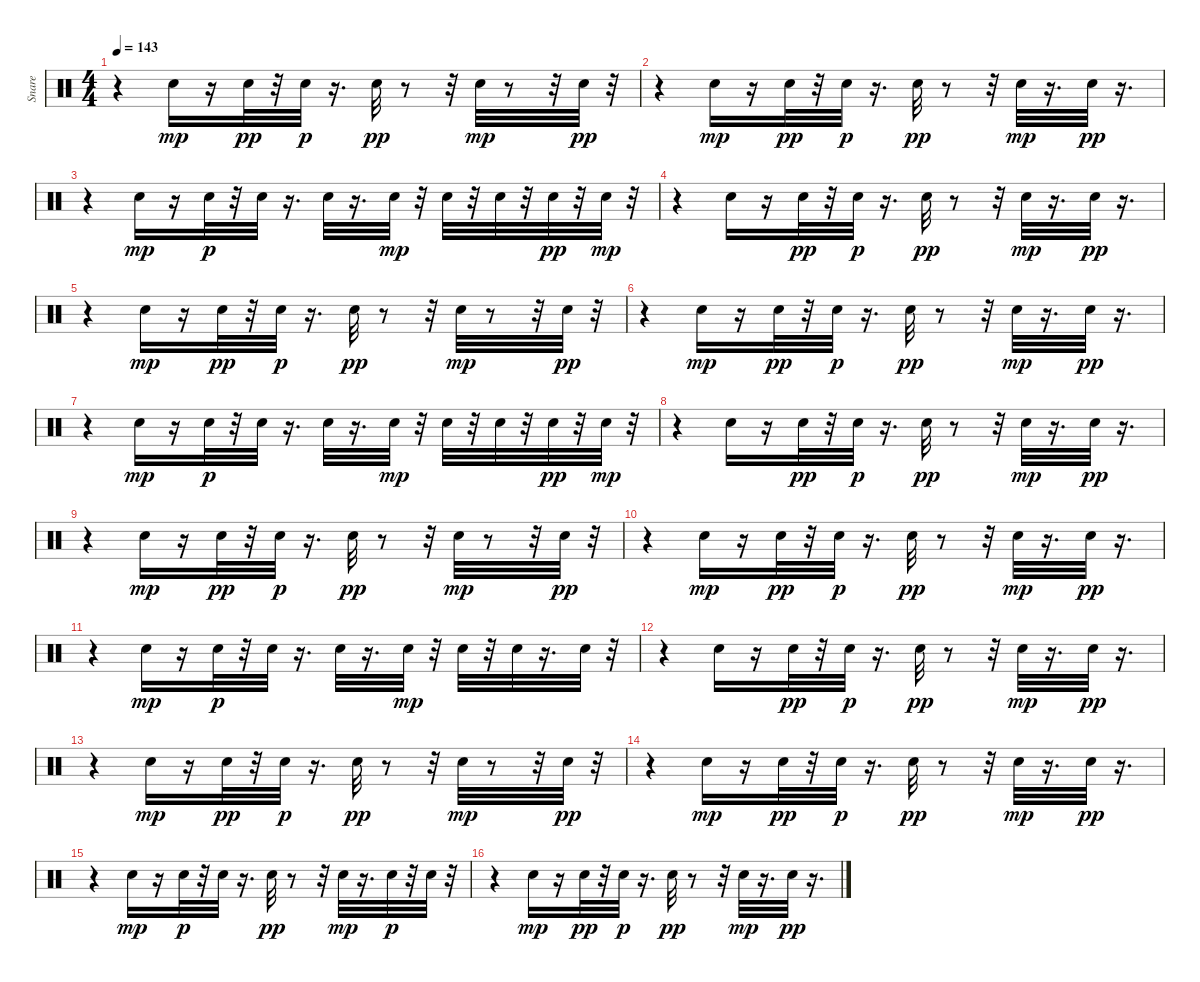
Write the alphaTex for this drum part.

\track ("Snare    " "Snare    ") {instrument percussion}
\staff {score}
\articulation defaults
\ts (4 4)
\tempo 143
\clef neutral
\ks c
r.4{dy pp} "Electric Snare (hit)".16{dy mp} r.16 "Electric Snare (hit)".32{dy pp} r.32 "Snare (hit) 2".32{dy p} r.16{d} "Electric Snare (hit)".32{dy pp} r.8 r.32 "Electric Snare (hit)".32{dy mp} r.8 r.32 "Electric Snare (hit)".32{dy pp} r.32 |
r.4 "Electric Snare (hit)".16{dy mp} r.16 "Electric Snare (hit)".32{dy pp} r.32 "Snare (hit) 2".32{dy p} r.16{d} "Electric Snare (hit)".32{dy pp} r.8 r.32 "Electric Snare (hit)".32{dy mp} r.16{d} "Electric Snare (hit)".32{dy pp} r.16{d} |
r.4 "Electric Snare (hit)".16{dy mp} r.16 "Electric Snare (hit)".32{dy p} r.32 "Snare (hit) 2".32 r.16{d} "Snare (hit) 2".32 r.16{d} "Snare (hit) 2".32{dy mp} r.32 "Electric Snare (hit)".32 r.32 "Snare (hit) 2".32 r.32 "Snare (hit) 2".32{dy pp} r.32 "Snare (hit) 2".32{dy mp} r.32 |
r.4 "Electric Snare (hit)".16 r.16 "Electric Snare (hit)".32{dy pp} r.32 "Snare (hit) 2".32{dy p} r.16{d} "Electric Snare (hit)".32{dy pp} r.8 r.32 "Electric Snare (hit)".32{dy mp} r.16{d} "Electric Snare (hit)".32{dy pp} r.16{d} |
r.4 "Electric Snare (hit)".16{dy mp} r.16 "Electric Snare (hit)".32{dy pp} r.32 "Snare (hit) 2".32{dy p} r.16{d} "Electric Snare (hit)".32{dy pp} r.8 r.32 "Electric Snare (hit)".32{dy mp} r.8 r.32 "Electric Snare (hit)".32{dy pp} r.32 |
r.4 "Electric Snare (hit)".16{dy mp} r.16 "Electric Snare (hit)".32{dy pp} r.32 "Snare (hit) 2".32{dy p} r.16{d} "Electric Snare (hit)".32{dy pp} r.8 r.32 "Electric Snare (hit)".32{dy mp} r.16{d} "Electric Snare (hit)".32{dy pp} r.16{d} |
r.4 "Electric Snare (hit)".16{dy mp} r.16 "Electric Snare (hit)".32{dy p} r.32 "Snare (hit) 2".32 r.16{d} "Snare (hit) 2".32 r.16{d} "Snare (hit) 2".32{dy mp} r.32 "Electric Snare (hit)".32 r.32 "Snare (hit) 2".32 r.32 "Snare (hit) 2".32{dy pp} r.32 "Snare (hit) 2".32{dy mp} r.32 |
r.4 "Electric Snare (hit)".16 r.16 "Electric Snare (hit)".32{dy pp} r.32 "Snare (hit) 2".32{dy p} r.16{d} "Electric Snare (hit)".32{dy pp} r.8 r.32 "Electric Snare (hit)".32{dy mp} r.16{d} "Electric Snare (hit)".32{dy pp} r.16{d} |
r.4 "Electric Snare (hit)".16{dy mp} r.16 "Electric Snare (hit)".32{dy pp} r.32 "Snare (hit) 2".32{dy p} r.16{d} "Electric Snare (hit)".32{dy pp} r.8 r.32 "Electric Snare (hit)".32{dy mp} r.8 r.32 "Electric Snare (hit)".32{dy pp} r.32 |
r.4 "Electric Snare (hit)".16{dy mp} r.16 "Electric Snare (hit)".32{dy pp} r.32 "Snare (hit) 2".32{dy p} r.16{d} "Electric Snare (hit)".32{dy pp} r.8 r.32 "Electric Snare (hit)".32{dy mp} r.16{d} "Electric Snare (hit)".32{dy pp} r.16{d} |
r.4 "Electric Snare (hit)".16{dy mp} r.16 "Electric Snare (hit)".32{dy p} r.32 "Snare (hit) 2".32 r.16{d} "Snare (hit) 2".32 r.16{d} "Snare (hit) 2".32{dy mp} r.32 "Electric Snare (hit)".32 r.32 "Snare (hit) 2".32 r.16{d} "Snare (hit) 2".32 r.32 |
r.4 "Electric Snare (hit)".16 r.16 "Electric Snare (hit)".32{dy pp} r.32 "Snare (hit) 2".32{dy p} r.16{d} "Electric Snare (hit)".32{dy pp} r.8 r.32 "Electric Snare (hit)".32{dy mp} r.16{d} "Electric Snare (hit)".32{dy pp} r.16{d} |
r.4 "Electric Snare (hit)".16{dy mp} r.16 "Electric Snare (hit)".32{dy pp} r.32 "Snare (hit) 2".32{dy p} r.16{d} "Electric Snare (hit)".32{dy pp} r.8 r.32 "Electric Snare (hit)".32{dy mp} r.8 r.32 "Electric Snare (hit)".32{dy pp} r.32 |
r.4 "Electric Snare (hit)".16{dy mp} r.16 "Electric Snare (hit)".32{dy pp} r.32 "Snare (hit) 2".32{dy p} r.16{d} "Electric Snare (hit)".32{dy pp} r.8 r.32 "Electric Snare (hit)".32{dy mp} r.16{d} "Electric Snare (hit)".32{dy pp} r.16{d} |
r.4 "Electric Snare (hit)".16{dy mp} r.16 "Electric Snare (hit)".32{dy p} r.32 "Snare (hit) 2".32 r.16{d} "Electric Snare (hit)".32{dy pp} r.8 r.32 "Electric Snare (hit)".32{dy mp} r.16{d} "Snare (hit) 2".32{dy p} r.32 "Snare (hit) 2".32 r.32 |
r.4 "Electric Snare (hit)".16{dy mp} r.16 "Electric Snare (hit)".32{dy pp} r.32 "Snare (hit) 2".32{dy p} r.16{d} "Electric Snare (hit)".32{dy pp} r.8 r.32 "Electric Snare (hit)".32{dy mp} r.16{d} "Electric Snare (hit)".32{dy pp} r.16{d}
